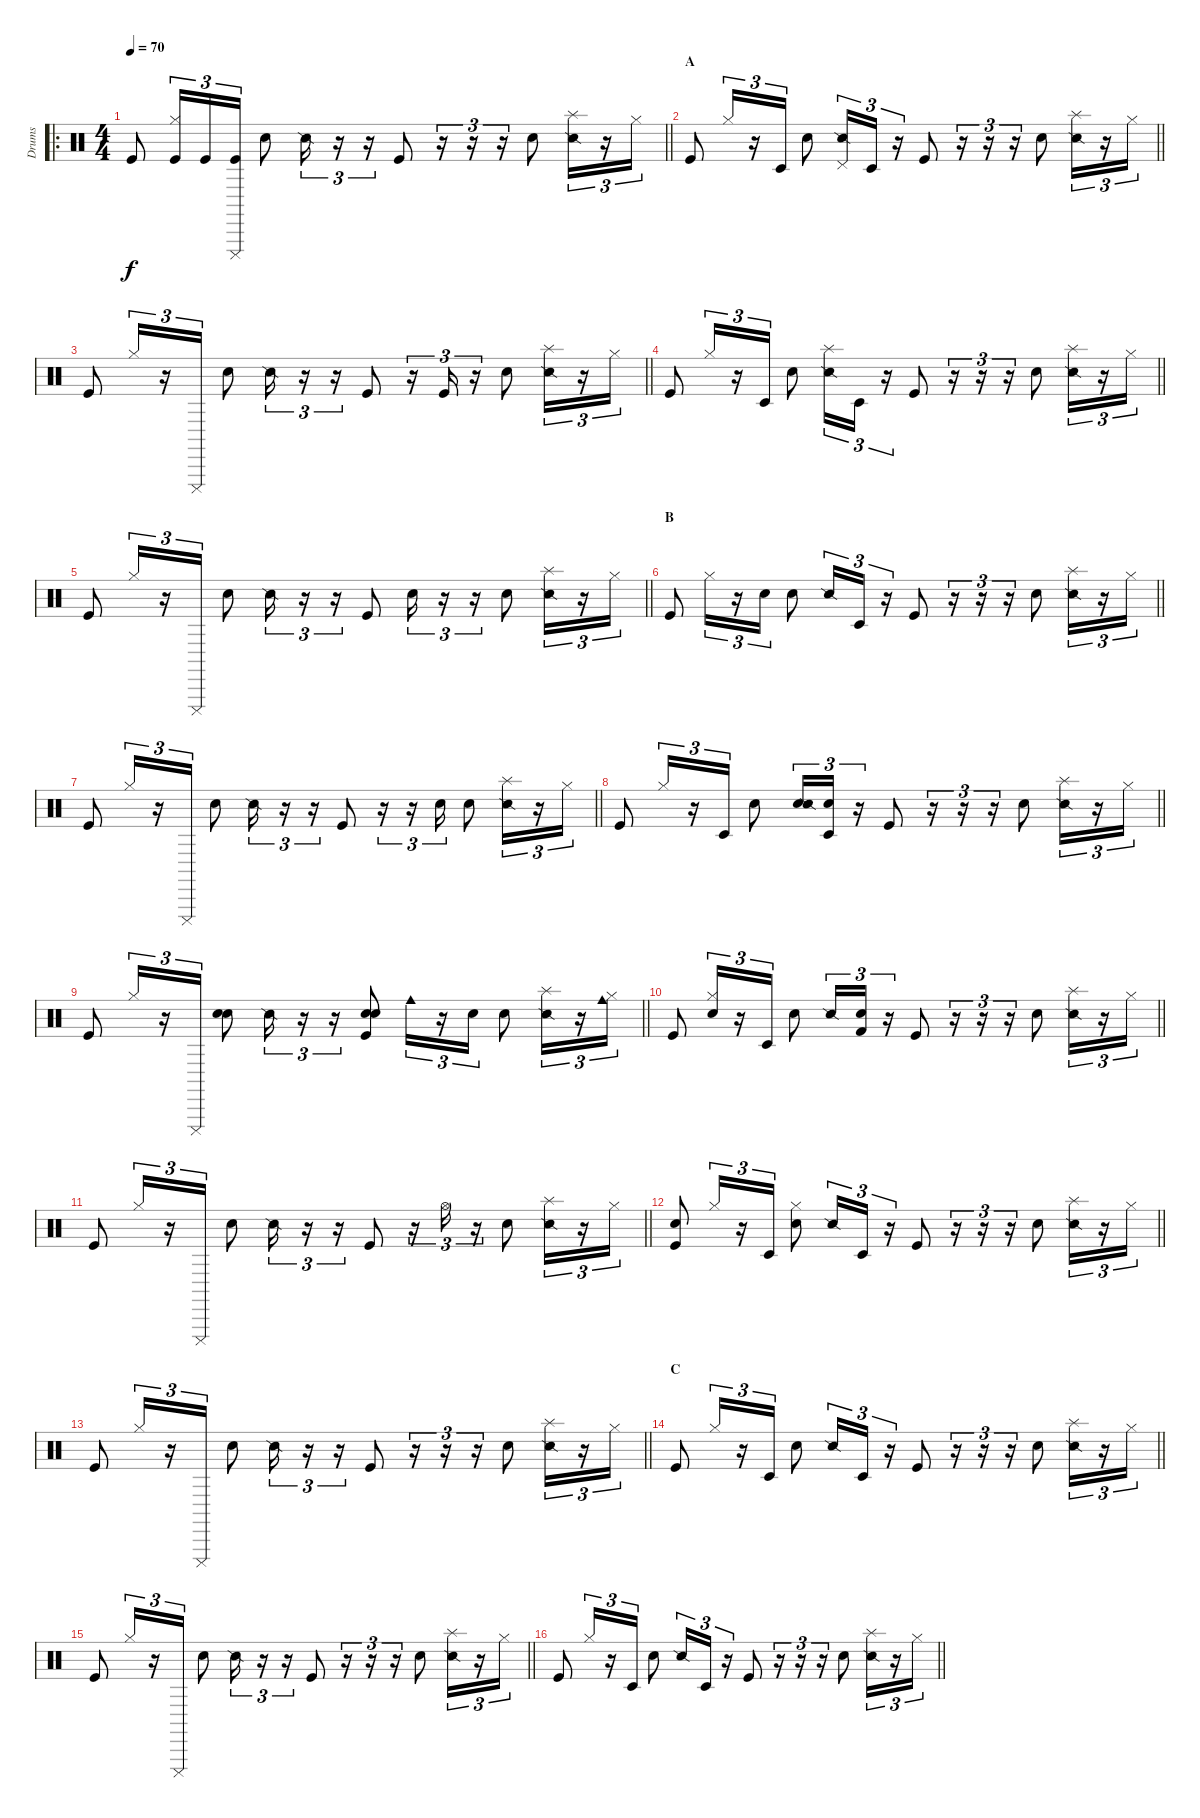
\track ("Drums" "Drums") {instrument percussion}
\staff {score}
\articulation defaults
\ro
\ts (4 4)
\tempo 70
\clef neutral
\barLineRight lightlight
\ks c "Kick (hit)".8{dy f}
("Hi-Hat (closed)" "Kick (hit)").16{tu (3 2)} "Kick (hit)".16{tu (3 2)} ("Cuica (mute)" "Kick (hit)").16{tu (3 2)} "Electric Snare (hit)".8 "Snare (side stick) 2".16{tu (3 2)} r.16{tu (3 2)} r.16{tu (3 2)} "Kick (hit)".8 r.16{tu (3 2)} r.16{tu (3 2)} r.16{tu (3 2)} "Electric Snare (hit)".8 ("Splash (hit)" "Snare (side stick) 2").16{tu (3 2)} r.16{tu (3 2)} "Hi-Hat (closed)".16{tu (3 2)} |
\section ("" "A")
\barLineRight lightlight "Kick (hit)".8 "Hi-Hat (closed)".16{tu (3 2)}
r.16{tu (3 2)} "Timbale low (hit)".16{tu (3 2)} "Electric Snare (hit)".8 ("Snare (side stick) 2" "Pedal Hi-Hat (hit)").16{tu (3 2)} "Timbale low (hit)".16{tu (3 2)} r.16{tu (3 2)} "Kick (hit)".8 r.16{tu (3 2)} r.16{tu (3 2)} r.16{tu (3 2)} "Electric Snare (hit)".8 ("Splash (hit)" "Snare (side stick) 2").16{tu (3 2)} r.16{tu (3 2)} "Hi-Hat (closed)".16{tu (3 2)} |
\barLineRight lightlight "Kick (hit)".8 "Hi-Hat (closed)".16{tu (3 2)}
r.16{tu (3 2)} "Cuica (mute)".16{tu (3 2)} "Electric Snare (hit)".8 "Snare (side stick) 2".16{tu (3 2)} r.16{tu (3 2)} r.16{tu (3 2)} "Kick (hit)".8 r.16{tu (3 2)} "Kick (hit)".16{tu (3 2)} r.16{tu (3 2)} "Electric Snare (hit)".8 ("Splash (hit)" "Snare (side stick) 2").16{tu (3 2)} r.16{tu (3 2)} "Hi-Hat (closed)".16{tu (3 2)} |
\barLineRight lightlight "Kick (hit)".8 "Hi-Hat (closed)".16{tu (3 2)}
r.16{tu (3 2)} "Timbale low (hit)".16{tu (3 2)} "Electric Snare (hit)".8 ("Splash (hit)" "Snare (side stick) 2").16{tu (3 2)} "Timbale low (hit)".16{tu (3 2)} r.16{tu (3 2)} "Kick (hit)".8 r.16{tu (3 2)} r.16{tu (3 2)} r.16{tu (3 2)} "Electric Snare (hit)".8 ("Splash (hit)" "Snare (side stick) 2").16{tu (3 2)} r.16{tu (3 2)} "Hi-Hat (closed)".16{tu (3 2)} |
\barLineRight lightlight "Kick (hit)".8 "Hi-Hat (closed)".16{tu (3 2)}
r.16{tu (3 2)} "Cuica (mute)".16{tu (3 2)} "Electric Snare (hit)".8 "Snare (side stick) 2".16{tu (3 2)} r.16{tu (3 2)} r.16{tu (3 2)} "Kick (hit)".8 "Snare (hit)".16{tu (3 2)} r.16{tu (3 2)} r.16{tu (3 2)} "Electric Snare (hit)".8 ("Splash (hit)" "Snare (side stick) 2").16{tu (3 2)} r.16{tu (3 2)} "Hi-Hat (closed)".16{tu (3 2)} |
\section ("" "B")
\barLineRight lightlight "Kick (hit)".8 "Hi-Hat (closed)".16{tu (3 2)}
r.16{tu (3 2)} "Snare (hit)".16{tu (3 2)} "Electric Snare (hit)".8 "Snare (side stick) 2".16{tu (3 2)} "Timbale low (hit)".16{tu (3 2)} r.16{tu (3 2)} "Kick (hit)".8 r.16{tu (3 2)} r.16{tu (3 2)} r.16{tu (3 2)} "Electric Snare (hit)".8 ("Splash (hit)" "Snare (side stick) 2").16{tu (3 2)} r.16{tu (3 2)} "Hi-Hat (closed)".16{tu (3 2)} |
\barLineRight lightlight "Kick (hit)".8 "Hi-Hat (closed)".16{tu (3 2)}
r.16{tu (3 2)} "Cuica (mute)".16{tu (3 2)} "Electric Snare (hit)".8 "Snare (side stick) 2".16{tu (3 2)} r.16{tu (3 2)} r.16{tu (3 2)} "Kick (hit)".8 r.16{tu (3 2)} r.16{tu (3 2)} "Snare (hit)".16{tu (3 2)} "Electric Snare (hit)".8 ("Splash (hit)" "Snare (side stick) 2").16{tu (3 2)} r.16{tu (3 2)} "Hi-Hat (closed)".16{tu (3 2)} |
\barLineRight lightlight "Kick (hit)".8 "Hi-Hat (closed)".16{tu (3 2)}
r.16{tu (3 2)} "Timbale low (hit)".16{tu (3 2)} "Electric Snare (hit)".8 ("Snare (hit)" "Snare (side stick) 2").16{tu (3 2)} ("Snare (hit)" "Timbale low (hit)").16{tu (3 2)} r.16{tu (3 2)} "Kick (hit)".8 r.16{tu (3 2)} r.16{tu (3 2)} r.16{tu (3 2)} "Electric Snare (hit)".8 ("Splash (hit)" "Snare (side stick) 2").16{tu (3 2)} r.16{tu (3 2)} "Hi-Hat (closed)".16{tu (3 2)} |
\barLineRight lightlight "Kick (hit)".8 "Hi-Hat (closed)".16{tu (3 2)}
r.16{tu (3 2)} "Cuica (mute)".16{tu (3 2)} ("Snare (hit)" "Electric Snare (hit)").8 "Snare (side stick) 2".16{tu (3 2)} r.16{tu (3 2)} r.16{tu (3 2)} ("Metronome (bell)" "Snare (hit)" "Kick (hit)").8 "Cowbell medium (hit)".16{tu (3 2)} r.16{tu (3 2)} "Snare (hit)".16{tu (3 2)} "Electric Snare (hit)".8 ("Splash (hit)" "Snare (side stick) 2").16{tu (3 2)} r.16{tu (3 2)} ("Hi-Hat (closed)" "Cowbell medium (hit)").16{tu (3 2)} |
\barLineRight lightlight "Kick (hit)".8
("Hi-Hat (closed)" "Snare (hit)").16{tu (3 2)} r.16{tu (3 2)} "Timbale low (hit)".16{tu (3 2)} "Electric Snare (hit)".8 "Snare (side stick) 2".16{tu (3 2)} ("Metronome (bell)" "Kick (hit) 2").16{tu (3 2)} r.16{tu (3 2)} "Kick (hit)".8 r.16{tu (3 2)} r.16{tu (3 2)} r.16{tu (3 2)} "Electric Snare (hit)".8 ("Splash (hit)" "Snare (side stick) 2").16{tu (3 2)} r.16{tu (3 2)} "Hi-Hat (closed)".16{tu (3 2)} |
\barLineRight lightlight "Kick (hit)".8 "Hi-Hat (closed)".16{tu (3 2)}
r.16{tu (3 2)} "Cuica (mute)".16{tu (3 2)} "Electric Snare (hit)".8 "Snare (side stick) 2".16{tu (3 2)} r.16{tu (3 2)} r.16{tu (3 2)} "Kick (hit)".8 r.16{tu (3 2)} "Hi-Hat (open)".16{tu (3 2)} r.16{tu (3 2)} "Electric Snare (hit)".8 ("Splash (hit)" "Snare (side stick) 2").16{tu (3 2)} r.16{tu (3 2)} "Hi-Hat (closed)".16{tu (3 2)} |
\barLineRight lightlight
("Snare (hit)" "Kick (hit)").8 "Hi-Hat (closed)".16{tu (3 2)} r.16{tu (3 2)} "Timbale low (hit)".16{tu (3 2)} ("Hi-Hat (closed)" "Electric Snare (hit)").8 "Snare (side stick) 2".16{tu (3 2)} "Timbale low (hit)".16{tu (3 2)} r.16{tu (3 2)} "Kick (hit)".8 r.16{tu (3 2)} r.16{tu (3 2)} r.16{tu (3 2)} "Electric Snare (hit)".8 ("Splash (hit)" "Snare (side stick) 2").16{tu (3 2)} r.16{tu (3 2)} "Hi-Hat (closed)".16{tu (3 2)} |
\barLineRight lightlight "Kick (hit)".8 "Hi-Hat (closed)".16{tu (3 2)}
r.16{tu (3 2)} "Cuica (mute)".16{tu (3 2)} "Electric Snare (hit)".8 "Snare (side stick) 2".16{tu (3 2)} r.16{tu (3 2)} r.16{tu (3 2)} "Kick (hit)".8 r.16{tu (3 2)} r.16{tu (3 2)} r.16{tu (3 2)} "Electric Snare (hit)".8 ("Splash (hit)" "Snare (side stick) 2").16{tu (3 2)} r.16{tu (3 2)} "Hi-Hat (closed)".16{tu (3 2)} |
\section ("" "C")
\barLineRight lightlight "Kick (hit)".8 "Hi-Hat (closed)".16{tu (3 2)}
r.16{tu (3 2)} "Timbale low (hit)".16{tu (3 2)} "Electric Snare (hit)".8 "Snare (side stick) 2".16{tu (3 2)} "Timbale low (hit)".16{tu (3 2)} r.16{tu (3 2)} "Kick (hit)".8 r.16{tu (3 2)} r.16{tu (3 2)} r.16{tu (3 2)} "Electric Snare (hit)".8 ("Splash (hit)" "Snare (side stick) 2").16{tu (3 2)} r.16{tu (3 2)} "Hi-Hat (closed)".16{tu (3 2)} |
\barLineRight lightlight "Kick (hit)".8 "Hi-Hat (closed)".16{tu (3 2)}
r.16{tu (3 2)} "Cuica (mute)".16{tu (3 2)} "Electric Snare (hit)".8 "Snare (side stick) 2".16{tu (3 2)} r.16{tu (3 2)} r.16{tu (3 2)} "Kick (hit)".8 r.16{tu (3 2)} r.16{tu (3 2)} r.16{tu (3 2)} "Electric Snare (hit)".8 ("Splash (hit)" "Snare (side stick) 2").16{tu (3 2)} r.16{tu (3 2)} "Hi-Hat (closed)".16{tu (3 2)} |
\barLineRight lightlight "Kick (hit)".8 "Hi-Hat (closed)".16{tu (3 2)}
r.16{tu (3 2)} "Timbale low (hit)".16{tu (3 2)} "Electric Snare (hit)".8 "Snare (side stick) 2".16{tu (3 2)} "Timbale low (hit)".16{tu (3 2)} r.16{tu (3 2)} "Kick (hit)".8 r.16{tu (3 2)} r.16{tu (3 2)} r.16{tu (3 2)} "Electric Snare (hit)".8 ("Splash (hit)" "Snare (side stick) 2").16{tu (3 2)} r.16{tu (3 2)} "Hi-Hat (closed)".16{tu (3 2)}
